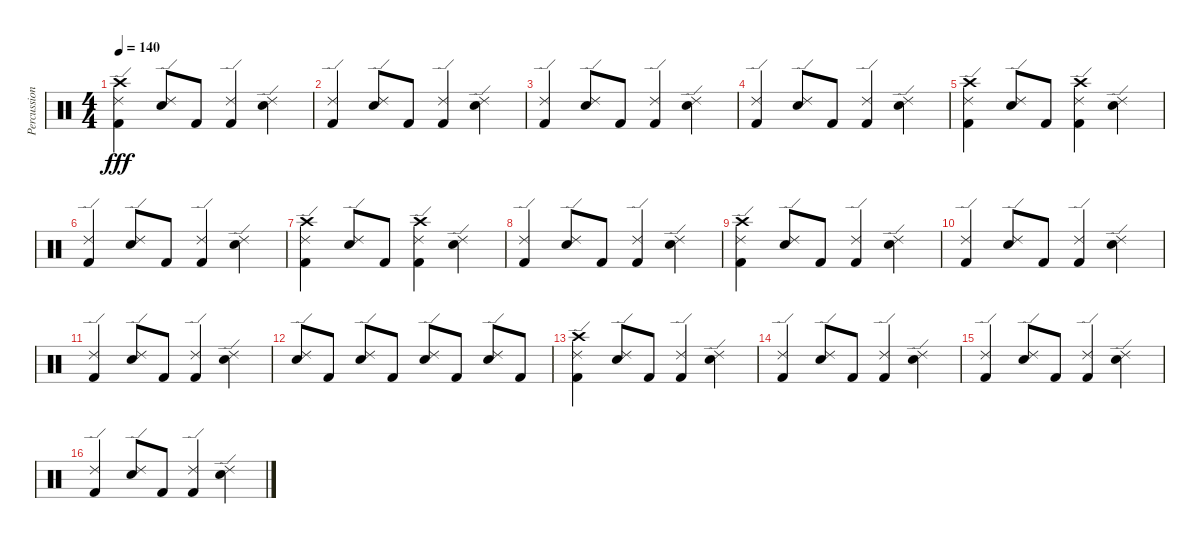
\track ("Percussion" "Percussion") {instrument percussion}
\staff {score}
\articulation defaults
\ts (4 4)
\tempo 140
\clef neutral
\ks c
("Crash high (hit)" "Ride (edge) 2" "Kick (hit) 2").4{dy fff} ("Ride (edge) 2" "Electric Snare (hit)").8 "Kick (hit) 2".8 ("Ride (edge) 2" "Kick (hit) 2").4 ("Ride (edge) 2" "Electric Snare (hit)").4 |
("Ride (edge) 2" "Kick (hit) 2").4 ("Ride (edge) 2" "Electric Snare (hit)").8 "Kick (hit) 2".8 ("Ride (edge) 2" "Kick (hit) 2").4 ("Ride (edge) 2" "Electric Snare (hit)").4 |
("Ride (edge) 2" "Kick (hit) 2").4 ("Ride (edge) 2" "Electric Snare (hit)").8 "Kick (hit) 2".8 ("Ride (edge) 2" "Kick (hit) 2").4 ("Ride (edge) 2" "Electric Snare (hit)").4 |
("Ride (edge) 2" "Kick (hit) 2").4 ("Ride (edge) 2" "Electric Snare (hit)").8 "Kick (hit) 2".8 ("Ride (edge) 2" "Kick (hit) 2").4 ("Ride (edge) 2" "Electric Snare (hit)").4 |
("Crash high (hit)" "Ride (edge) 2" "Kick (hit) 2").4 ("Ride (edge) 2" "Electric Snare (hit)").8 "Kick (hit) 2".8 ("Crash high (hit)" "Ride (edge) 2" "Kick (hit) 2").4 ("Ride (edge) 2" "Electric Snare (hit)").4 |
("Ride (edge) 2" "Kick (hit) 2").4 ("Ride (edge) 2" "Electric Snare (hit)").8 "Kick (hit) 2".8 ("Ride (edge) 2" "Kick (hit) 2").4 ("Ride (edge) 2" "Electric Snare (hit)").4 |
("Crash high (hit)" "Ride (edge) 2" "Kick (hit) 2").4 ("Ride (edge) 2" "Electric Snare (hit)").8 "Kick (hit) 2".8 ("Crash high (hit)" "Ride (edge) 2" "Kick (hit) 2").4 ("Ride (edge) 2" "Electric Snare (hit)").4 |
("Ride (edge) 2" "Kick (hit) 2").4 ("Ride (edge) 2" "Electric Snare (hit)").8 "Kick (hit) 2".8 ("Ride (edge) 2" "Kick (hit) 2").4 ("Ride (edge) 2" "Electric Snare (hit)").4 |
("Crash high (hit)" "Ride (edge) 2" "Kick (hit) 2").4 ("Ride (edge) 2" "Electric Snare (hit)").8 "Kick (hit) 2".8 ("Ride (edge) 2" "Kick (hit) 2").4 ("Ride (edge) 2" "Electric Snare (hit)").4 |
("Ride (edge) 2" "Kick (hit) 2").4 ("Ride (edge) 2" "Electric Snare (hit)").8 "Kick (hit) 2".8 ("Ride (edge) 2" "Kick (hit) 2").4 ("Ride (edge) 2" "Electric Snare (hit)").4 |
("Ride (edge) 2" "Kick (hit) 2").4 ("Ride (edge) 2" "Electric Snare (hit)").8 "Kick (hit) 2".8 ("Ride (edge) 2" "Kick (hit) 2").4 ("Ride (edge) 2" "Electric Snare (hit)").4 |
("Ride (edge) 2" "Electric Snare (hit)").8 "Kick (hit) 2".8 ("Ride (edge) 2" "Electric Snare (hit)").8 "Kick (hit) 2".8 ("Ride (edge) 2" "Electric Snare (hit)").8 "Kick (hit) 2".8 ("Ride (edge) 2" "Electric Snare (hit)").8 "Kick (hit) 2".8 |
("Crash high (hit)" "Ride (edge) 2" "Kick (hit) 2").4 ("Ride (edge) 2" "Electric Snare (hit)").8 "Kick (hit) 2".8 ("Ride (edge) 2" "Kick (hit) 2").4 ("Ride (edge) 2" "Electric Snare (hit)").4 |
("Ride (edge) 2" "Kick (hit) 2").4 ("Ride (edge) 2" "Electric Snare (hit)").8 "Kick (hit) 2".8 ("Ride (edge) 2" "Kick (hit) 2").4 ("Ride (edge) 2" "Electric Snare (hit)").4 |
("Ride (edge) 2" "Kick (hit) 2").4 ("Ride (edge) 2" "Electric Snare (hit)").8 "Kick (hit) 2".8 ("Ride (edge) 2" "Kick (hit) 2").4 ("Ride (edge) 2" "Electric Snare (hit)").4 |
("Ride (edge) 2" "Kick (hit) 2").4 ("Ride (edge) 2" "Electric Snare (hit)").8 "Kick (hit) 2".8 ("Ride (edge) 2" "Kick (hit) 2").4 ("Ride (edge) 2" "Electric Snare (hit)").4
